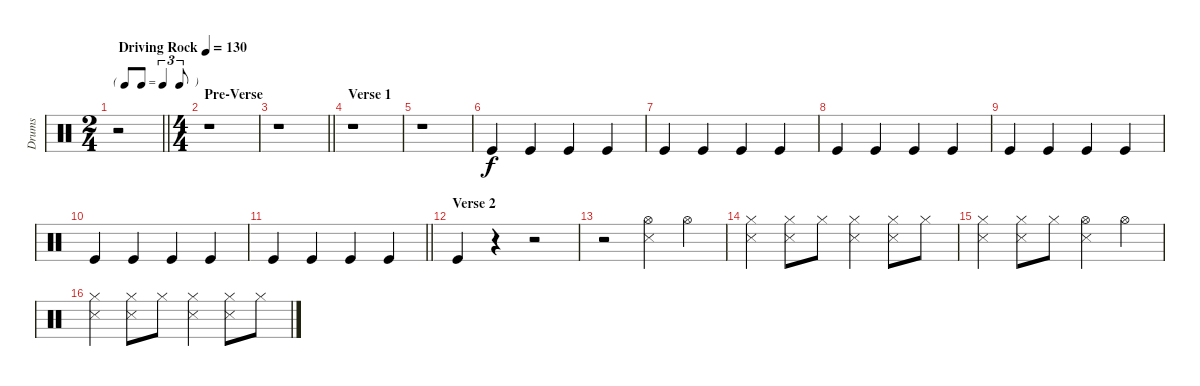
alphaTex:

\track ("Drums" "Drums") {instrument percussion}
\staff {score}
\articulation defaults
\ts (2 4)
\tf triplet8th
\tempo (130 "Driving Rock")
\clef neutral
\barLineRight lightlight
\ks c
r.2{dy f} |
\ts (4 4)
\section ("" "Pre-Verse")
r.1 |
\barLineRight lightlight
r.1 |
\section ("" "Verse 1")
r.1 |
r.1 |
"Kick (hit)".4 "Kick (hit)".4 "Kick (hit)".4 "Kick (hit)".4 |
"Kick (hit)".4 "Kick (hit)".4 "Kick (hit)".4 "Kick (hit)".4 |
"Kick (hit)".4 "Kick (hit)".4 "Kick (hit)".4 "Kick (hit)".4 |
"Kick (hit)".4 "Kick (hit)".4 "Kick (hit)".4 "Kick (hit)".4 |
"Kick (hit)".4 "Kick (hit)".4 "Kick (hit)".4 "Kick (hit)".4 |
\barLineRight lightlight "Kick (hit)".4 "Kick (hit)".4 "Kick (hit)".4 "Kick (hit)".4
|
\section ("" "Verse 2")
"Kick (hit)".4 r.4 r.2 |
r.2 ("Snare (side stick) 3" "Hi-Hat (open)").4 "Hi-Hat (open)".4 |
("Hi-Hat (closed)" "Snare (side stick) 3").4 ("Hi-Hat (closed)" "Snare (side stick) 3").8 "Hi-Hat (closed)".8 ("Hi-Hat (closed)" "Snare (side stick) 3").4 ("Hi-Hat (closed)" "Snare (side stick) 3").8 "Hi-Hat (closed)".8 |
("Hi-Hat (closed)" "Snare (side stick) 3").4 ("Hi-Hat (closed)" "Snare (side stick) 3").8 "Hi-Hat (closed)".8 ("Snare (side stick) 3" "Hi-Hat (open)").4 "Hi-Hat (open)".4 |
("Hi-Hat (closed)" "Snare (side stick) 3").4 ("Hi-Hat (closed)" "Snare (side stick) 3").8 "Hi-Hat (closed)".8 ("Hi-Hat (closed)" "Snare (side stick) 3").4 ("Hi-Hat (closed)" "Snare (side stick) 3").8 "Hi-Hat (closed)".8
